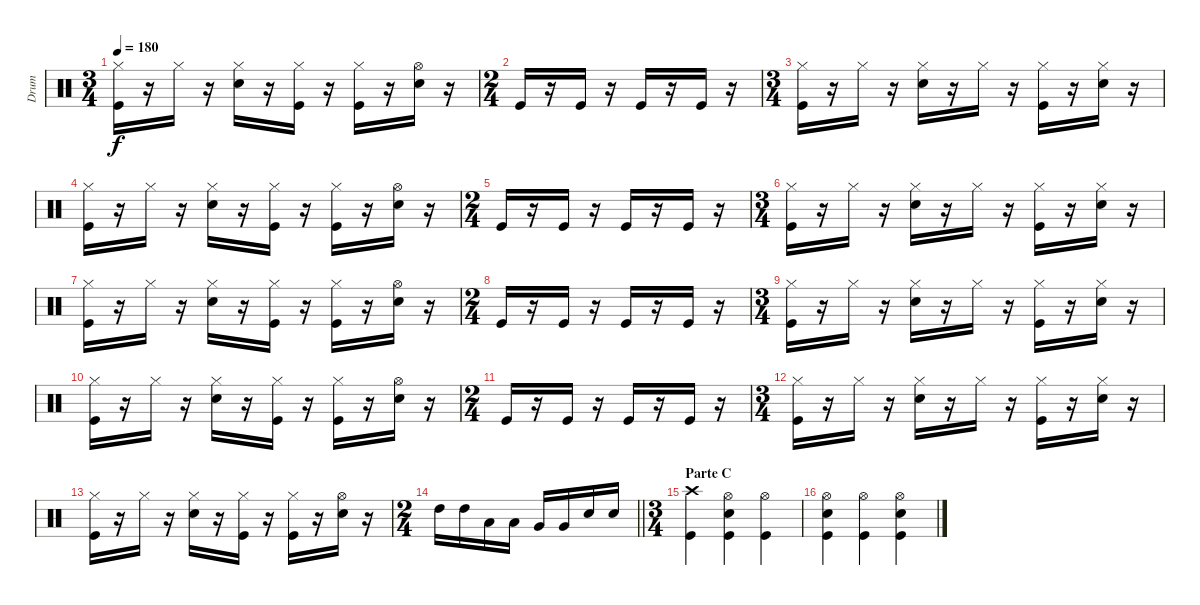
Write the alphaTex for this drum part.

\track ("Drum" "Drum") {instrument percussion}
\staff {score}
\articulation defaults
\ts (3 4)
\tempo 180
\clef neutral
\ks c
("Hi-Hat (closed)" "Kick (hit)").16{dy f} r.16 "Hi-Hat (closed)".16 r.16 ("Hi-Hat (closed)" "Snare (hit) 2").16 r.16 ("Hi-Hat (closed)" "Kick (hit)").16 r.16 ("Hi-Hat (closed)" "Kick (hit)").16 r.16 ("Hi-Hat (open)" "Snare (hit) 2").16 r.16 |
\ts (2 4)
"Kick (hit)".16 r.16 "Kick (hit)".16 r.16 "Kick (hit)".16 r.16 "Kick (hit)".16 r.16 |
\ts (3 4)
("Hi-Hat (closed)" "Kick (hit)").16 r.16 "Hi-Hat (closed)".16 r.16 ("Hi-Hat (closed)" "Snare (hit) 2").16 r.16 "Hi-Hat (closed)".16 r.16 ("Hi-Hat (closed)" "Kick (hit)").16 r.16 ("Hi-Hat (closed)" "Snare (hit) 2").16 r.16 |
("Hi-Hat (closed)" "Kick (hit)").16 r.16 "Hi-Hat (closed)".16 r.16 ("Hi-Hat (closed)" "Snare (hit) 2").16 r.16 ("Hi-Hat (closed)" "Kick (hit)").16 r.16 ("Hi-Hat (closed)" "Kick (hit)").16 r.16 ("Hi-Hat (open)" "Snare (hit) 2").16 r.16 |
\ts (2 4)
"Kick (hit)".16 r.16 "Kick (hit)".16 r.16 "Kick (hit)".16 r.16 "Kick (hit)".16 r.16 |
\ts (3 4)
("Hi-Hat (closed)" "Kick (hit)").16 r.16 "Hi-Hat (closed)".16 r.16 ("Hi-Hat (closed)" "Snare (hit) 2").16 r.16 "Hi-Hat (closed)".16 r.16 ("Hi-Hat (closed)" "Kick (hit)").16 r.16 ("Hi-Hat (closed)" "Snare (hit) 2").16 r.16 |
("Hi-Hat (closed)" "Kick (hit)").16 r.16 "Hi-Hat (closed)".16 r.16 ("Hi-Hat (closed)" "Snare (hit) 2").16 r.16 ("Hi-Hat (closed)" "Kick (hit)").16 r.16 ("Hi-Hat (closed)" "Kick (hit)").16 r.16 ("Hi-Hat (open)" "Snare (hit) 2").16 r.16 |
\ts (2 4)
"Kick (hit)".16 r.16 "Kick (hit)".16 r.16 "Kick (hit)".16 r.16 "Kick (hit)".16 r.16 |
\ts (3 4)
("Hi-Hat (closed)" "Kick (hit)").16 r.16 "Hi-Hat (closed)".16 r.16 ("Hi-Hat (closed)" "Snare (hit) 2").16 r.16 "Hi-Hat (closed)".16 r.16 ("Hi-Hat (closed)" "Kick (hit)").16 r.16 ("Hi-Hat (closed)" "Snare (hit) 2").16 r.16 |
("Hi-Hat (closed)" "Kick (hit)").16 r.16 "Hi-Hat (closed)".16 r.16 ("Hi-Hat (closed)" "Snare (hit) 2").16 r.16 ("Hi-Hat (closed)" "Kick (hit)").16 r.16 ("Hi-Hat (closed)" "Kick (hit)").16 r.16 ("Hi-Hat (open)" "Snare (hit) 2").16 r.16 |
\ts (2 4)
"Kick (hit)".16 r.16 "Kick (hit)".16 r.16 "Kick (hit)".16 r.16 "Kick (hit)".16 r.16 |
\ts (3 4)
("Hi-Hat (closed)" "Kick (hit)").16 r.16 "Hi-Hat (closed)".16 r.16 ("Hi-Hat (closed)" "Snare (hit) 2").16 r.16 "Hi-Hat (closed)".16 r.16 ("Hi-Hat (closed)" "Kick (hit)").16 r.16 ("Hi-Hat (closed)" "Snare (hit) 2").16 r.16 |
("Hi-Hat (closed)" "Kick (hit)").16 r.16 "Hi-Hat (closed)".16 r.16 ("Hi-Hat (closed)" "Snare (hit) 2").16 r.16 ("Hi-Hat (closed)" "Kick (hit)").16 r.16 ("Hi-Hat (closed)" "Kick (hit)").16 r.16 ("Hi-Hat (open)" "Snare (hit) 2").16 r.16 |
\ts (2 4)
\barLineRight lightlight "High Tom (hit)".16 "High Tom (hit)".16 "Low Tom (hit)".16 "Low Tom (hit)".16 "Very Low Tom (hit)".16 "Very Low Tom (hit)".16 "Snare (hit) 2".16 "Snare (hit) 2".16
|
\ts (3 4)
\section ("" "Parte C")
("Crash high (hit)" "Kick (hit)").4 ("Hi-Hat (open)" "Snare (hit) 2" "Kick (hit)").4 ("Hi-Hat (open)" "Kick (hit)").4 |
("Hi-Hat (open)" "Snare (hit) 2" "Kick (hit)").4 ("Hi-Hat (open)" "Kick (hit)").4 ("Hi-Hat (open)" "Snare (hit) 2" "Kick (hit)").4
